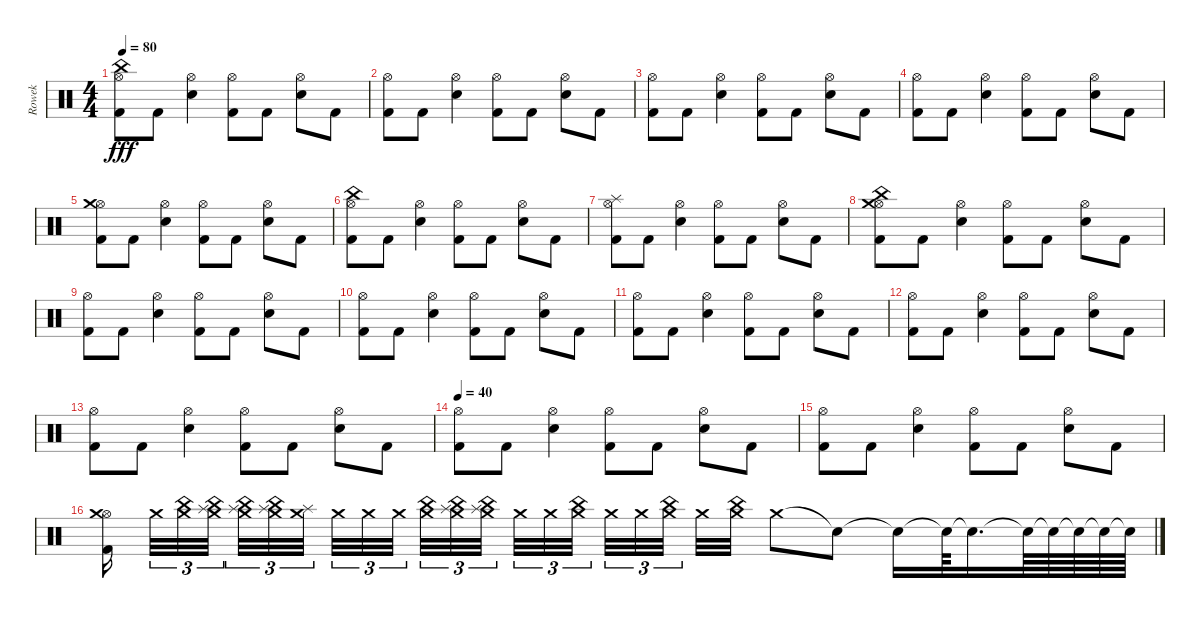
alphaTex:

\track ("Rowek" "Rowek") {instrument percussion}
\staff {score}
\articulation defaults
\ts (4 4)
\tempo 80
\clef neutral
\ks c
("Hi-Hat (open)" "China (hit)" "Kick (hit) 2").8{dy fff} "Kick (hit) 2".8 ("Hi-Hat (open)" "Electric Snare (hit)").4 ("Hi-Hat (open)" "Kick (hit) 2").8 "Kick (hit) 2".8 ("Hi-Hat (open)" "Electric Snare (hit)").8 "Kick (hit) 2".8 |
("Hi-Hat (open)" "Kick (hit) 2").8 "Kick (hit) 2".8 ("Hi-Hat (open)" "Electric Snare (hit)").4 ("Hi-Hat (open)" "Kick (hit) 2").8 "Kick (hit) 2".8 ("Hi-Hat (open)" "Electric Snare (hit)").8 "Kick (hit) 2".8 |
("Hi-Hat (open)" "Kick (hit) 2").8 "Kick (hit) 2".8 ("Hi-Hat (open)" "Electric Snare (hit)").4 ("Hi-Hat (open)" "Kick (hit) 2").8 "Kick (hit) 2".8 ("Hi-Hat (open)" "Electric Snare (hit)").8 "Kick (hit) 2".8 |
("Hi-Hat (open)" "Kick (hit) 2").8 "Kick (hit) 2".8 ("Hi-Hat (open)" "Electric Snare (hit)").4 ("Hi-Hat (open)" "Kick (hit) 2").8 "Kick (hit) 2".8 ("Hi-Hat (open)" "Electric Snare (hit)").8 "Kick (hit) 2".8 |
("Hi-Hat (open)" "Crash medium (hit)" "Kick (hit) 2").8 "Kick (hit) 2".8 ("Hi-Hat (open)" "Electric Snare (hit)").4 ("Hi-Hat (open)" "Kick (hit) 2").8 "Kick (hit) 2".8 ("Hi-Hat (open)" "Electric Snare (hit)").8 "Kick (hit) 2".8 |
("Hi-Hat (open)" "China (hit)" "Kick (hit) 2").8 "Kick (hit) 2".8 ("Hi-Hat (open)" "Electric Snare (hit)").4 ("Hi-Hat (open)" "Kick (hit) 2").8 "Kick (hit) 2".8 ("Hi-Hat (open)" "Electric Snare (hit)").8 "Kick (hit) 2".8 |
("Hi-Hat (open)" "Splash (hit)" "Kick (hit) 2").8 "Kick (hit) 2".8 ("Hi-Hat (open)" "Electric Snare (hit)").4 ("Hi-Hat (open)" "Kick (hit) 2").8 "Kick (hit) 2".8 ("Hi-Hat (open)" "Electric Snare (hit)").8 "Kick (hit) 2".8 |
("Hi-Hat (open)" "Crash medium (hit)" "China (hit)" "Kick (hit) 2").8 "Kick (hit) 2".8 ("Hi-Hat (open)" "Electric Snare (hit)").4 ("Hi-Hat (open)" "Kick (hit) 2").8 "Kick (hit) 2".8 ("Hi-Hat (open)" "Electric Snare (hit)").8 "Kick (hit) 2".8 |
("Hi-Hat (open)" "Kick (hit) 2").8 "Kick (hit) 2".8 ("Hi-Hat (open)" "Electric Snare (hit)").4 ("Hi-Hat (open)" "Kick (hit) 2").8 "Kick (hit) 2".8 ("Hi-Hat (open)" "Electric Snare (hit)").8 "Kick (hit) 2".8 |
("Hi-Hat (open)" "Kick (hit) 2").8 "Kick (hit) 2".8 ("Hi-Hat (open)" "Electric Snare (hit)").4 ("Hi-Hat (open)" "Kick (hit) 2").8 "Kick (hit) 2".8 ("Hi-Hat (open)" "Electric Snare (hit)").8 "Kick (hit) 2".8 |
("Hi-Hat (open)" "Kick (hit) 2").8 "Kick (hit) 2".8 ("Hi-Hat (open)" "Electric Snare (hit)").4 ("Hi-Hat (open)" "Kick (hit) 2").8 "Kick (hit) 2".8 ("Hi-Hat (open)" "Electric Snare (hit)").8 "Kick (hit) 2".8 |
("Hi-Hat (open)" "Kick (hit) 2").8 "Kick (hit) 2".8 ("Hi-Hat (open)" "Electric Snare (hit)").4 ("Hi-Hat (open)" "Kick (hit) 2").8 "Kick (hit) 2".8 ("Hi-Hat (open)" "Electric Snare (hit)").8 "Kick (hit) 2".8 |
("Hi-Hat (open)" "Kick (hit) 2").8 "Kick (hit) 2".8 ("Hi-Hat (open)" "Electric Snare (hit)").4 ("Hi-Hat (open)" "Kick (hit) 2").8 "Kick (hit) 2".8 ("Hi-Hat (open)" "Electric Snare (hit)").8 "Kick (hit) 2".8 |
\tempo 40
("Hi-Hat (open)" "Kick (hit) 2").8 "Kick (hit) 2".8 ("Hi-Hat (open)" "Electric Snare (hit)").4 ("Hi-Hat (open)" "Kick (hit) 2").8 "Kick (hit) 2".8 ("Hi-Hat (open)" "Electric Snare (hit)").8 "Kick (hit) 2".8 |
("Hi-Hat (open)" "Kick (hit) 2").8 "Kick (hit) 2".8 ("Hi-Hat (open)" "Electric Snare (hit)").4 ("Hi-Hat (open)" "Kick (hit) 2").8 "Kick (hit) 2".8 ("Hi-Hat (open)" "Electric Snare (hit)").8 "Kick (hit) 2".8 |
("Hi-Hat (open)" "Crash medium (hit)" "Kick (hit) 2").16{beam splitsecondary} "Crash medium (hit)".32{tu (3 2)} ("Crash medium (hit)" "China (hit)").32{tu (3 2)} ("Crash medium (hit)" "China (hit)" "Splash (hit)").32{tu (3 2) beam splitsecondary} ("Crash medium (hit)" "China (hit)" "Splash (hit)").32{tu (3 2)} ("Crash medium (hit)" "China (hit)" "Splash (hit)").32{tu (3 2)} ("Crash medium (hit)" "Splash (hit)").32{tu (3 2) beam splitsecondary} "Crash medium (hit)".32{tu (3 2)} "Crash medium (hit)".32{tu (3 2)} "Crash medium (hit)".32{tu (3 2)} ("Crash medium (hit)" "China (hit)").32{tu (3 2)} ("Crash medium (hit)" "China (hit)" "Splash (hit)").32{tu (3 2)} ("Crash medium (hit)" "China (hit)" "Splash (hit)").32{tu (3 2) beam splitsecondary} "Crash medium (hit)".32{tu (3 2)} "Crash medium (hit)".32{tu (3 2)} ("Crash medium (hit)" "China (hit)").32{tu (3 2) beam splitsecondary} "Crash medium (hit)".32{tu (3 2)} "Crash medium (hit)".32{tu (3 2)} ("Crash medium (hit)" "China (hit)").32{tu (3 2) beam splitsecondary} "Crash medium (hit)".32 ("Crash medium (hit)" "China (hit)").32 "Crash medium (hit)".8 "Snare (hit)"{t}.8 "Snare (hit)"{t}.16 "Snare (hit)"{t}.64 "Snare (hit)"{t}.16{d} "Snare (hit)"{t}.64 "Snare (hit)"{t}.64 "Snare (hit)"{t}.64 "Snare (hit)"{t}.64 "Snare (hit)"{t}.64
